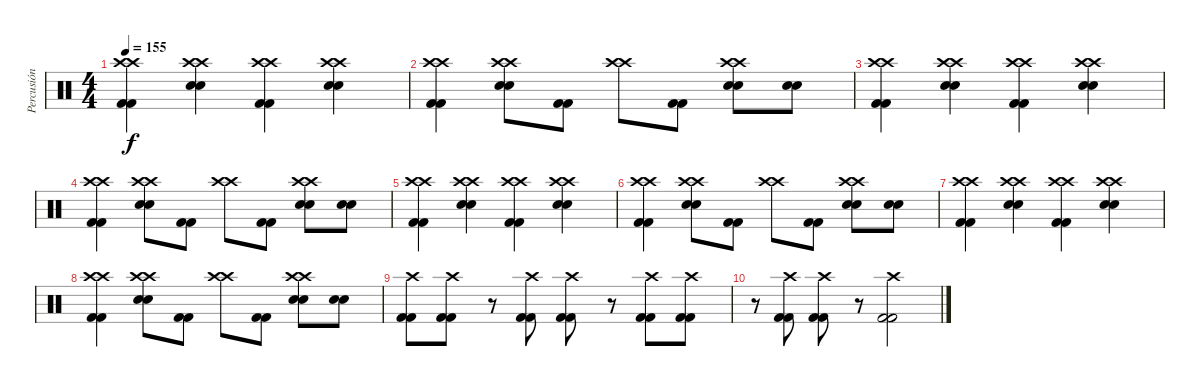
\track ("Percusión" "Percusión") {instrument percussion}
\staff {score}
\articulation defaults
\ts (4 4)
\tempo 155
\clef neutral
\ks c
("Crash high (hit)" "Crash high (hit)" "Kick (hit) 2" "Kick (hit) 2").4{dy f} ("Crash high (hit)" "Crash high (hit)" "Electric Snare (hit)" "Electric Snare (hit)").4 ("Crash high (hit)" "Crash high (hit)" "Kick (hit) 2" "Kick (hit) 2").4 ("Crash high (hit)" "Crash high (hit)" "Electric Snare (hit)" "Electric Snare (hit)").4 |
("Crash high (hit)" "Crash high (hit)" "Kick (hit) 2" "Kick (hit) 2").4 ("Crash high (hit)" "Crash high (hit)" "Electric Snare (hit)" "Electric Snare (hit)").8 ("Kick (hit) 2" "Kick (hit) 2").8 ("Crash high (hit)" "Crash high (hit)").8 ("Kick (hit) 2" "Kick (hit) 2").8 ("Crash high (hit)" "Crash high (hit)" "Electric Snare (hit)" "Electric Snare (hit)").8 ("Electric Snare (hit)" "Electric Snare (hit)").8 |
("Crash high (hit)" "Crash high (hit)" "Kick (hit) 2" "Kick (hit) 2").4 ("Crash high (hit)" "Crash high (hit)" "Electric Snare (hit)" "Electric Snare (hit)").4 ("Crash high (hit)" "Crash high (hit)" "Kick (hit) 2" "Kick (hit) 2").4 ("Crash high (hit)" "Crash high (hit)" "Electric Snare (hit)" "Electric Snare (hit)").4 |
("Crash high (hit)" "Crash high (hit)" "Kick (hit) 2" "Kick (hit) 2").4 ("Crash high (hit)" "Crash high (hit)" "Electric Snare (hit)" "Electric Snare (hit)").8 ("Kick (hit) 2" "Kick (hit) 2").8 ("Crash high (hit)" "Crash high (hit)").8 ("Kick (hit) 2" "Kick (hit) 2").8 ("Crash high (hit)" "Crash high (hit)" "Electric Snare (hit)" "Electric Snare (hit)").8 ("Electric Snare (hit)" "Electric Snare (hit)").8 |
("Crash high (hit)" "Crash high (hit)" "Kick (hit) 2" "Kick (hit) 2").4 ("Crash high (hit)" "Crash high (hit)" "Electric Snare (hit)" "Electric Snare (hit)").4 ("Crash high (hit)" "Crash high (hit)" "Kick (hit) 2" "Kick (hit) 2").4 ("Crash high (hit)" "Crash high (hit)" "Electric Snare (hit)" "Electric Snare (hit)").4 |
("Crash high (hit)" "Crash high (hit)" "Kick (hit) 2" "Kick (hit) 2").4 ("Crash high (hit)" "Crash high (hit)" "Electric Snare (hit)" "Electric Snare (hit)").8 ("Kick (hit) 2" "Kick (hit) 2").8 ("Crash high (hit)" "Crash high (hit)").8 ("Kick (hit) 2" "Kick (hit) 2").8 ("Crash high (hit)" "Crash high (hit)" "Electric Snare (hit)" "Electric Snare (hit)").8 ("Electric Snare (hit)" "Electric Snare (hit)").8 |
("Crash high (hit)" "Crash high (hit)" "Kick (hit) 2" "Kick (hit) 2").4 ("Crash high (hit)" "Crash high (hit)" "Electric Snare (hit)" "Electric Snare (hit)").4 ("Crash high (hit)" "Crash high (hit)" "Kick (hit) 2" "Kick (hit) 2").4 ("Crash high (hit)" "Crash high (hit)" "Electric Snare (hit)" "Electric Snare (hit)").4 |
("Crash high (hit)" "Crash high (hit)" "Kick (hit) 2" "Kick (hit) 2").4 ("Crash high (hit)" "Crash high (hit)" "Electric Snare (hit)" "Electric Snare (hit)").8 ("Kick (hit) 2" "Kick (hit) 2").8 ("Crash high (hit)" "Crash high (hit)").8 ("Kick (hit) 2" "Kick (hit) 2").8 ("Crash high (hit)" "Crash high (hit)" "Electric Snare (hit)" "Electric Snare (hit)").8 ("Electric Snare (hit)" "Electric Snare (hit)").8 |
("Crash high (hit)" "Kick (hit) 2" "Kick (hit) 2").8 ("Crash high (hit)" "Kick (hit) 2" "Kick (hit) 2").8 r.8 ("Crash high (hit)" "Kick (hit) 2" "Kick (hit) 2").8 ("Crash high (hit)" "Kick (hit) 2" "Kick (hit) 2").8 r.8 ("Crash high (hit)" "Kick (hit) 2" "Kick (hit) 2").8 ("Crash high (hit)" "Kick (hit) 2" "Kick (hit) 2").8 |
r.8 ("Crash high (hit)" "Kick (hit) 2" "Kick (hit) 2").8 ("Crash high (hit)" "Kick (hit) 2" "Kick (hit) 2").8 r.8 ("Crash high (hit)" "Kick (hit) 2" "Kick (hit) 2").2
